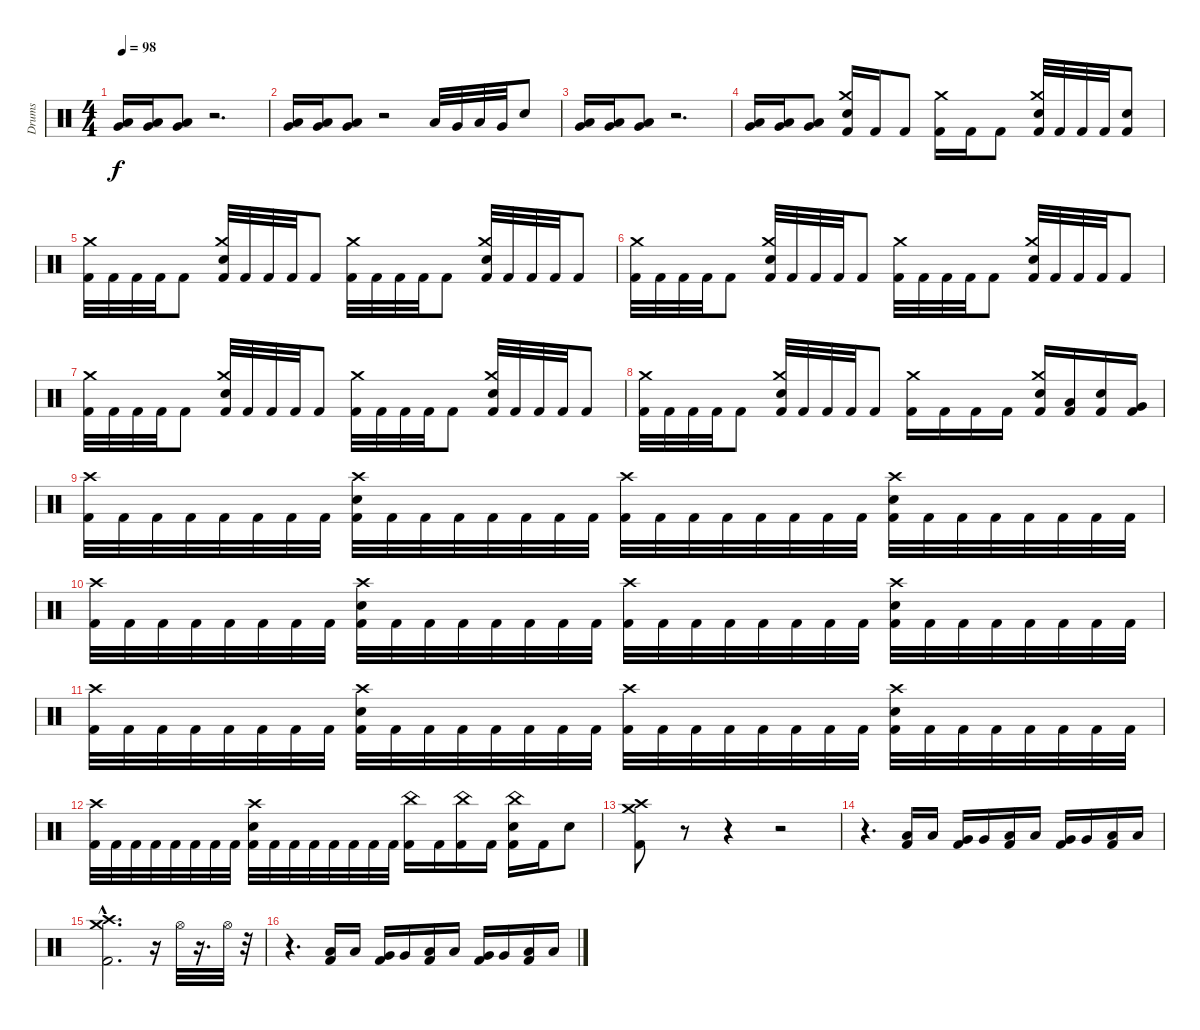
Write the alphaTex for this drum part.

\track ("Drums" "Drums") {instrument percussion}
\staff {score}
\articulation defaults
\ts (4 4)
\tempo 98
\clef neutral
\ks c
("Low Tom (hit)" "Very Low Tom (hit)").16{dy f} ("Low Tom (hit)" "Very Low Tom (hit)").16 ("Low Tom (hit)" "Very Low Tom (hit)").8 r.2{d} |
("Low Tom (hit)" "Very Low Tom (hit)").16 ("Low Tom (hit)" "Very Low Tom (hit)").16 ("Low Tom (hit)" "Very Low Tom (hit)").8 r.2 "Low Tom (hit)".32 "Very Low Tom (hit)".32 "Low Tom (hit)".32 "Very Low Tom (hit)".32 "Snare (hit) 2".8 |
("Low Tom (hit)" "Very Low Tom (hit)").16 ("Low Tom (hit)" "Very Low Tom (hit)").16 ("Low Tom (hit)" "Very Low Tom (hit)").8 r.2{d} |
("Low Tom (hit)" "Very Low Tom (hit)").16 ("Low Tom (hit)" "Very Low Tom (hit)").16 ("Low Tom (hit)" "Very Low Tom (hit)").8 ("Crash medium (hit)" "Snare (hit) 2" "Kick (hit) 2").16 "Kick (hit) 2".16 "Kick (hit) 2".8 ("Crash medium (hit)" "Kick (hit) 2").16 "Kick (hit) 2".16 "Kick (hit) 2".8 ("Crash medium (hit)" "Snare (hit) 2" "Kick (hit) 2").32 "Kick (hit) 2".32 "Kick (hit) 2".32 "Kick (hit) 2".32 ("Snare (hit) 2" "Kick (hit) 2").8 |
("Crash medium (hit)" "Kick (hit) 2").32 "Kick (hit) 2".32 "Kick (hit) 2".32 "Kick (hit) 2".32 "Kick (hit) 2".8 ("Crash medium (hit)" "Snare (hit) 2" "Kick (hit) 2").32 "Kick (hit) 2".32 "Kick (hit) 2".32 "Kick (hit) 2".32 "Kick (hit) 2".8 ("Crash medium (hit)" "Kick (hit) 2").32 "Kick (hit) 2".32 "Kick (hit) 2".32 "Kick (hit) 2".32 "Kick (hit) 2".8 ("Crash medium (hit)" "Snare (hit) 2" "Kick (hit) 2").32 "Kick (hit) 2".32 "Kick (hit) 2".32 "Kick (hit) 2".32 "Kick (hit) 2".8 |
("Crash medium (hit)" "Kick (hit) 2").32 "Kick (hit) 2".32 "Kick (hit) 2".32 "Kick (hit) 2".32 "Kick (hit) 2".8 ("Crash medium (hit)" "Snare (hit) 2" "Kick (hit) 2").32 "Kick (hit) 2".32 "Kick (hit) 2".32 "Kick (hit) 2".32 "Kick (hit) 2".8 ("Crash medium (hit)" "Kick (hit) 2").32 "Kick (hit) 2".32 "Kick (hit) 2".32 "Kick (hit) 2".32 "Kick (hit) 2".8 ("Crash medium (hit)" "Snare (hit) 2" "Kick (hit) 2").32 "Kick (hit) 2".32 "Kick (hit) 2".32 "Kick (hit) 2".32 "Kick (hit) 2".8 |
("Crash medium (hit)" "Kick (hit) 2").32 "Kick (hit) 2".32 "Kick (hit) 2".32 "Kick (hit) 2".32 "Kick (hit) 2".8 ("Crash medium (hit)" "Snare (hit) 2" "Kick (hit) 2").32 "Kick (hit) 2".32 "Kick (hit) 2".32 "Kick (hit) 2".32 "Kick (hit) 2".8 ("Crash medium (hit)" "Kick (hit) 2").32 "Kick (hit) 2".32 "Kick (hit) 2".32 "Kick (hit) 2".32 "Kick (hit) 2".8 ("Crash medium (hit)" "Snare (hit) 2" "Kick (hit) 2").32 "Kick (hit) 2".32 "Kick (hit) 2".32 "Kick (hit) 2".32 "Kick (hit) 2".8 |
("Crash medium (hit)" "Kick (hit) 2").32 "Kick (hit) 2".32 "Kick (hit) 2".32 "Kick (hit) 2".32 "Kick (hit) 2".8 ("Crash medium (hit)" "Snare (hit) 2" "Kick (hit) 2").32 "Kick (hit) 2".32 "Kick (hit) 2".32 "Kick (hit) 2".32 "Kick (hit) 2".8 ("Crash medium (hit)" "Kick (hit) 2").16 "Kick (hit) 2".16 "Kick (hit) 2".16 "Kick (hit) 2".16 ("Crash medium (hit)" "Snare (hit) 2" "Kick (hit) 2").16 ("Low Tom (hit)" "Kick (hit) 2").16 ("Snare (hit) 2" "Kick (hit) 2").16 ("Very Low Tom (hit)" "Kick (hit) 2").16 |
("Crash high (hit)" "Kick (hit) 2").32 "Kick (hit) 2".32 "Kick (hit) 2".32 "Kick (hit) 2".32 "Kick (hit) 2".32 "Kick (hit) 2".32 "Kick (hit) 2".32 "Kick (hit) 2".32 ("Crash high (hit)" "Snare (hit) 2" "Kick (hit) 2").32 "Kick (hit) 2".32 "Kick (hit) 2".32 "Kick (hit) 2".32 "Kick (hit) 2".32 "Kick (hit) 2".32 "Kick (hit) 2".32 "Kick (hit) 2".32 ("Crash high (hit)" "Kick (hit) 2").32 "Kick (hit) 2".32 "Kick (hit) 2".32 "Kick (hit) 2".32 "Kick (hit) 2".32 "Kick (hit) 2".32 "Kick (hit) 2".32 "Kick (hit) 2".32 ("Crash high (hit)" "Snare (hit) 2" "Kick (hit) 2").32 "Kick (hit) 2".32 "Kick (hit) 2".32 "Kick (hit) 2".32 "Kick (hit) 2".32 "Kick (hit) 2".32 "Kick (hit) 2".32 "Kick (hit) 2".32 |
("Crash high (hit)" "Kick (hit) 2").32 "Kick (hit) 2".32 "Kick (hit) 2".32 "Kick (hit) 2".32 "Kick (hit) 2".32 "Kick (hit) 2".32 "Kick (hit) 2".32 "Kick (hit) 2".32 ("Crash high (hit)" "Snare (hit) 2" "Kick (hit) 2").32 "Kick (hit) 2".32 "Kick (hit) 2".32 "Kick (hit) 2".32 "Kick (hit) 2".32 "Kick (hit) 2".32 "Kick (hit) 2".32 "Kick (hit) 2".32 ("Crash high (hit)" "Kick (hit) 2").32 "Kick (hit) 2".32 "Kick (hit) 2".32 "Kick (hit) 2".32 "Kick (hit) 2".32 "Kick (hit) 2".32 "Kick (hit) 2".32 "Kick (hit) 2".32 ("Crash high (hit)" "Snare (hit) 2" "Kick (hit) 2").32 "Kick (hit) 2".32 "Kick (hit) 2".32 "Kick (hit) 2".32 "Kick (hit) 2".32 "Kick (hit) 2".32 "Kick (hit) 2".32 "Kick (hit) 2".32 |
("Crash high (hit)" "Kick (hit) 2").32 "Kick (hit) 2".32 "Kick (hit) 2".32 "Kick (hit) 2".32 "Kick (hit) 2".32 "Kick (hit) 2".32 "Kick (hit) 2".32 "Kick (hit) 2".32 ("Crash high (hit)" "Snare (hit) 2" "Kick (hit) 2").32 "Kick (hit) 2".32 "Kick (hit) 2".32 "Kick (hit) 2".32 "Kick (hit) 2".32 "Kick (hit) 2".32 "Kick (hit) 2".32 "Kick (hit) 2".32 ("Crash high (hit)" "Kick (hit) 2").32 "Kick (hit) 2".32 "Kick (hit) 2".32 "Kick (hit) 2".32 "Kick (hit) 2".32 "Kick (hit) 2".32 "Kick (hit) 2".32 "Kick (hit) 2".32 ("Crash high (hit)" "Snare (hit) 2" "Kick (hit) 2").32 "Kick (hit) 2".32 "Kick (hit) 2".32 "Kick (hit) 2".32 "Kick (hit) 2".32 "Kick (hit) 2".32 "Kick (hit) 2".32 "Kick (hit) 2".32 |
("Crash high (hit)" "Kick (hit) 2").32 "Kick (hit) 2".32 "Kick (hit) 2".32 "Kick (hit) 2".32 "Kick (hit) 2".32 "Kick (hit) 2".32 "Kick (hit) 2".32 "Kick (hit) 2".32 ("Crash high (hit)" "Snare (hit) 2" "Kick (hit) 2").32 "Kick (hit) 2".32 "Kick (hit) 2".32 "Kick (hit) 2".32 "Kick (hit) 2".32 "Kick (hit) 2".32 "Kick (hit) 2".32 "Kick (hit) 2".32 ("China (hit)" "Kick (hit) 2").16 "Kick (hit) 2".16 ("China (hit)" "Kick (hit) 2").16 "Kick (hit) 2".16 ("China (hit)" "Snare (hit) 2" "Kick (hit) 2").16 "Kick (hit) 2".16 "Snare (hit) 2".8 |
("Crash high (hit)" "Crash medium (hit)" "Kick (hit) 2").8 r.8 r.4 r.2 |
r.4{d} ("Low Tom (hit)" "Kick (hit) 2").16 "Low Tom (hit)".16 ("Very Low Tom (hit)" "Kick (hit) 2").16 "Very Low Tom (hit)".16 ("Low Tom (hit)" "Kick (hit) 2").16 "Low Tom (hit)".16 ("Very Low Tom (hit)" "Kick (hit) 2").16 "Very Low Tom (hit)".16 ("Low Tom (hit)" "Kick (hit) 2").16 "Low Tom (hit)".16 |
("Crash high (hit)"{hac} "Crash medium (hit)"{hac} "Kick (hit) 2"{hac}).2{d} r.16 "Hi-Hat (open)".32 r.16{d} "Hi-Hat (open)".32 r.32 |
r.4{d} ("Low Tom (hit)" "Kick (hit) 2").16 "Low Tom (hit)".16 ("Very Low Tom (hit)" "Kick (hit) 2").16 "Very Low Tom (hit)".16 ("Low Tom (hit)" "Kick (hit) 2").16 "Low Tom (hit)".16 ("Very Low Tom (hit)" "Kick (hit) 2").16 "Very Low Tom (hit)".16 ("Low Tom (hit)" "Kick (hit) 2").16 "Low Tom (hit)".16
